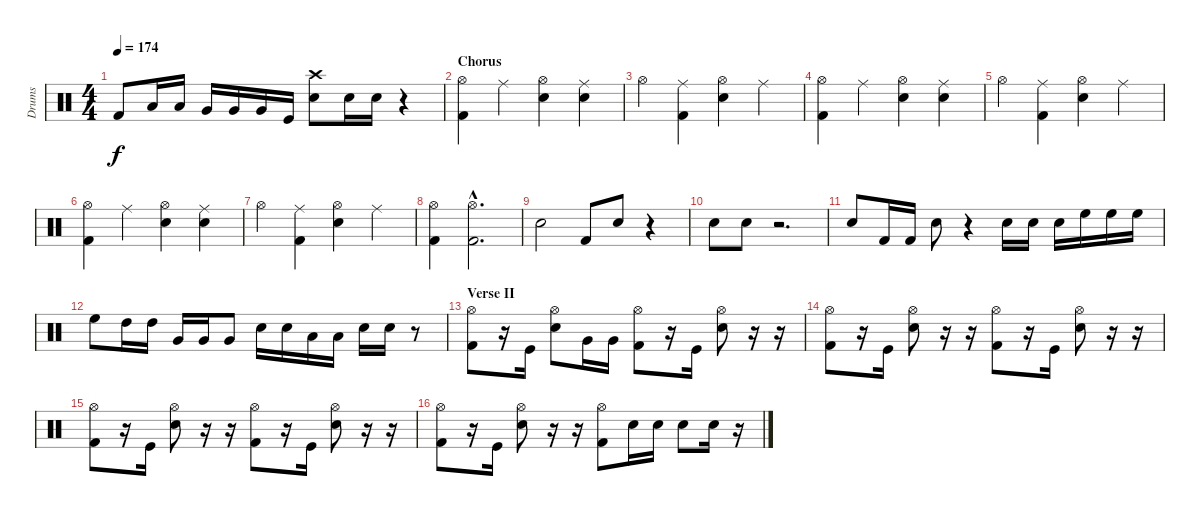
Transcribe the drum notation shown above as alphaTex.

\track ("Drums" "Drums") {instrument percussion}
\staff {score}
\articulation defaults
\ts (4 4)
\tempo 174
\clef neutral
\ks c "Kick (hit) 2".8{dy f} "Low Tom (hit)".16 "Low Tom (hit)".16 "Very Low Tom (hit)".16 "Very Low Tom (hit)".16 "Very Low Tom (hit)".16 "Kick (hit)".16
("Crash high (hit)" "Snare (hit) 2").8 "Snare (hit) 2".16 "Snare (hit) 2".16 r.4 |
\section ("" "Chorus")
("Hi-Hat (open)" "Kick (hit) 2").4 "Ride (middle)".4 ("Hi-Hat (open)" "Snare (hit) 2").4 ("Ride (middle)" "Snare (hit) 2").4 |
"Hi-Hat (open)".4 ("Ride (middle)" "Kick (hit) 2").4 ("Hi-Hat (open)" "Snare (hit) 2").4 "Ride (middle)".4 |
("Hi-Hat (open)" "Kick (hit) 2").4 "Ride (middle)".4 ("Hi-Hat (open)" "Snare (hit) 2").4 ("Ride (middle)" "Snare (hit) 2").4 |
"Hi-Hat (open)".4 ("Ride (middle)" "Kick (hit) 2").4 ("Hi-Hat (open)" "Snare (hit) 2").4 "Ride (middle)".4 |
("Hi-Hat (open)" "Kick (hit) 2").4 "Ride (middle)".4 ("Hi-Hat (open)" "Snare (hit) 2").4 ("Ride (middle)" "Snare (hit) 2").4 |
"Hi-Hat (open)".4 ("Ride (middle)" "Kick (hit) 2").4 ("Hi-Hat (open)" "Snare (hit) 2").4 "Ride (middle)".4 |
("Hi-Hat (open)" "Kick (hit) 2").4 ("Hi-Hat (open)"{hac} "Kick (hit) 2"{hac}).2{d} |
"Snare (hit) 2".2 "Kick (hit) 2".8 "Snare (hit) 2".8 r.4 |
"Snare (hit) 2".8 "Snare (hit) 2".8 r.2{d} |
"Snare (hit) 2".8 "Kick (hit) 2".16 "Kick (hit) 2".16 "Snare (hit) 2".8 r.4 "Snare (hit) 2".16 "Snare (hit) 2".16 "Snare (hit) 2".16 "High Floor Tom (hit)".16 "High Floor Tom (hit)".16 "High Floor Tom (hit)".16 |
"High Floor Tom (hit)".8 "High Tom (hit)".16 "High Tom (hit)".16 "Very Low Tom (hit)".16 "Very Low Tom (hit)".16 "Very Low Tom (hit)".8 "Snare (hit) 2".16 "Snare (hit) 2".16 "Low Tom (hit)".16 "Low Tom (hit)".16 "Snare (hit) 2".16 "Snare (hit) 2".16 r.8 |
\section ("" "Verse II")
("Hi-Hat (open)" "Kick (hit) 2").8 r.16 "Kick (hit)".16 ("Hi-Hat (open)" "Snare (hit) 2").8 "Very Low Tom (hit)".16 "Very Low Tom (hit)".16 ("Hi-Hat (open)" "Kick (hit) 2").8 r.16 "Kick (hit)".16 ("Hi-Hat (open)" "Snare (hit) 2").8 r.16 r.16 |
("Hi-Hat (open)" "Kick (hit) 2").8 r.16 "Kick (hit)".16 ("Hi-Hat (open)" "Snare (hit) 2").8 r.16 r.16 ("Hi-Hat (open)" "Kick (hit) 2").8 r.16 "Kick (hit)".16 ("Hi-Hat (open)" "Snare (hit) 2").8 r.16 r.16 |
("Hi-Hat (open)" "Kick (hit) 2").8 r.16 "Kick (hit)".16 ("Hi-Hat (open)" "Snare (hit) 2").8 r.16 r.16 ("Hi-Hat (open)" "Kick (hit) 2").8 r.16 "Kick (hit)".16 ("Hi-Hat (open)" "Snare (hit) 2").8 r.16 r.16 |
("Hi-Hat (open)" "Kick (hit) 2").8 r.16 "Kick (hit)".16 ("Hi-Hat (open)" "Snare (hit) 2").8 r.16 r.16 ("Hi-Hat (open)" "Kick (hit) 2").8 "Snare (hit) 2".16 "Snare (hit) 2".16 "Snare (hit) 2".8 "Snare (hit) 2".16 r.16
